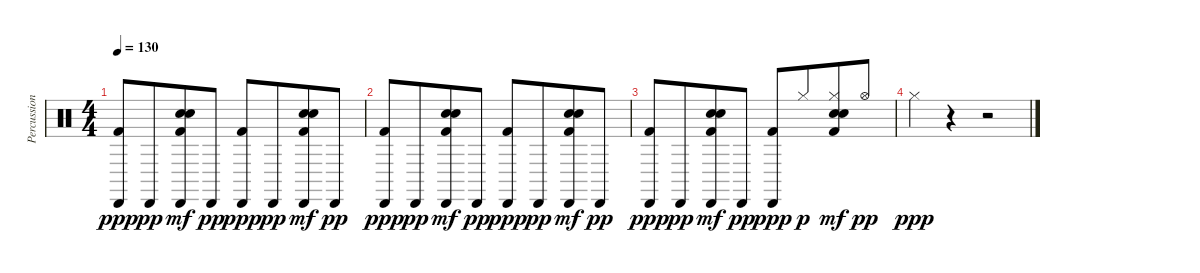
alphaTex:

\track ("Percussion" "Percussion") {instrument percussion}
\staff {score}
\articulation defaults
\ts (4 4)
\tempo 130
\clef neutral
\ks aminor
("Cabasa (hit)" "Kick (hit) 2").8{dy ppp} "Cabasa (hit)".8{dy pp beam merge} ("Cabasa (hit)" "Hand Clap (hit)" "Snare (hit) 2" "Kick (hit) 2").8{dy mf} "Cabasa (hit)".8{dy pp} ("Cabasa (hit)" "Kick (hit) 2").8{dy ppp} "Cabasa (hit)".8{dy pp beam merge} ("Cabasa (hit)" "Hand Clap (hit)" "Snare (hit) 2" "Kick (hit) 2").8{dy mf} "Cabasa (hit)".8{dy pp} |
("Cabasa (hit)" "Kick (hit) 2").8{dy ppp} "Cabasa (hit)".8{dy pp beam merge} ("Cabasa (hit)" "Hand Clap (hit)" "Snare (hit) 2" "Kick (hit) 2").8{dy mf} "Cabasa (hit)".8{dy pp} ("Cabasa (hit)" "Kick (hit) 2").8{dy ppp} "Cabasa (hit)".8{dy pp beam merge} ("Cabasa (hit)" "Hand Clap (hit)" "Snare (hit) 2" "Kick (hit) 2").8{dy mf} "Cabasa (hit)".8{dy pp} |
("Cabasa (hit)" "Kick (hit) 2").8{dy ppp} "Cabasa (hit)".8{dy pp beam merge} ("Cabasa (hit)" "Hand Clap (hit)" "Snare (hit) 2" "Kick (hit) 2").8{dy mf} "Cabasa (hit)".8{dy pp} ("Cabasa (hit)" "Kick (hit) 2").8{dy ppp} "Hi-Hat (closed)".8{dy p beam merge} ("Hi-Hat (closed)" "Hand Clap (hit)" "Snare (hit) 2" "Kick (hit) 2").8{dy mf} "Hi-Hat (open)".8{dy pp} |
"Hi-Hat (closed)".4{dy ppp} r.4 r.2
